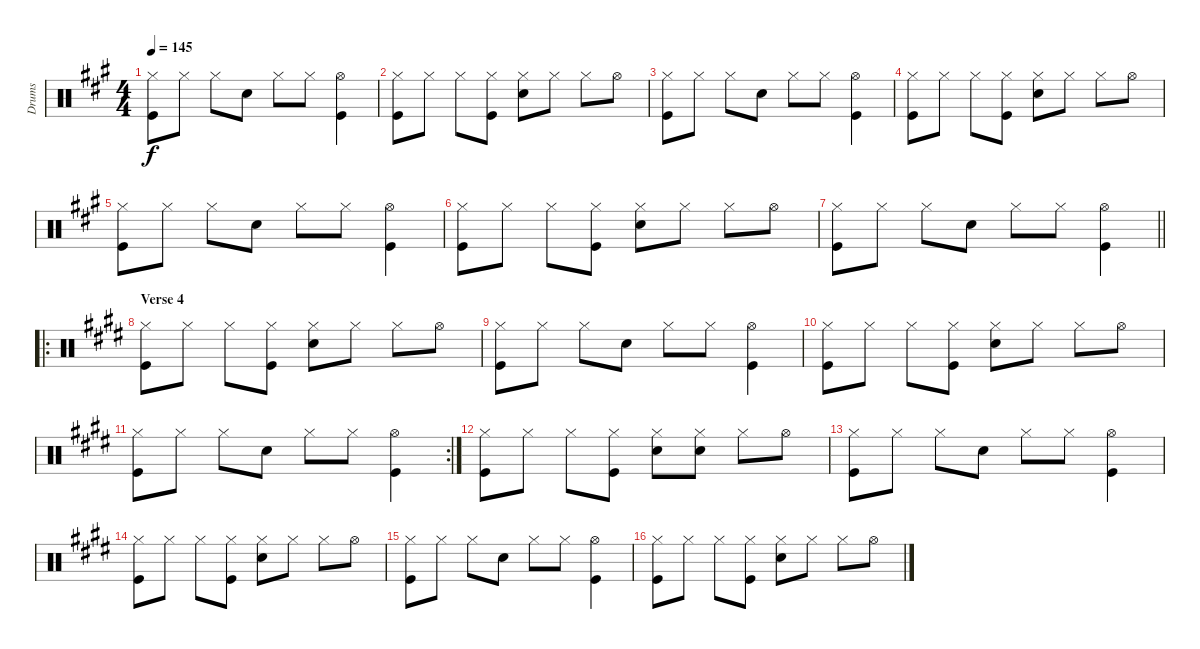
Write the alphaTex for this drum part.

\track ("Drums" "Drums") {instrument percussion}
\staff {score}
\articulation defaults
\ts (4 4)
\tempo 145
\clef neutral
\ks a
("Hi-Hat (closed)" "Kick (hit)").8{dy f} "Hi-Hat (closed)".8 "Hi-Hat (closed)".8 "Snare (hit) 2".8 "Hi-Hat (closed)".8 "Hi-Hat (closed)".8 ("Hi-Hat (open)" "Kick (hit)").4 |
("Hi-Hat (closed)" "Kick (hit)").8 "Hi-Hat (closed)".8 "Hi-Hat (closed)".8 ("Hi-Hat (closed)" "Kick (hit)").8 ("Hi-Hat (closed)" "Snare (hit) 2").8 "Hi-Hat (closed)".8 "Hi-Hat (closed)".8 "Hi-Hat (open)".8 |
("Hi-Hat (closed)" "Kick (hit)").8 "Hi-Hat (closed)".8 "Hi-Hat (closed)".8 "Snare (hit) 2".8 "Hi-Hat (closed)".8 "Hi-Hat (closed)".8 ("Hi-Hat (open)" "Kick (hit)").4 |
("Hi-Hat (closed)" "Kick (hit)").8 "Hi-Hat (closed)".8 "Hi-Hat (closed)".8 ("Hi-Hat (closed)" "Kick (hit)").8 ("Hi-Hat (closed)" "Snare (hit) 2").8 "Hi-Hat (closed)".8 "Hi-Hat (closed)".8 "Hi-Hat (open)".8 |
("Hi-Hat (closed)" "Kick (hit)").8 "Hi-Hat (closed)".8 "Hi-Hat (closed)".8 "Snare (hit) 2".8 "Hi-Hat (closed)".8 "Hi-Hat (closed)".8 ("Hi-Hat (open)" "Kick (hit)").4 |
("Hi-Hat (closed)" "Kick (hit)").8 "Hi-Hat (closed)".8 "Hi-Hat (closed)".8 ("Hi-Hat (closed)" "Kick (hit)").8 ("Hi-Hat (closed)" "Snare (hit) 2").8 "Hi-Hat (closed)".8 "Hi-Hat (closed)".8 "Hi-Hat (open)".8 |
\barLineRight lightlight
("Hi-Hat (closed)" "Kick (hit)").8 "Hi-Hat (closed)".8 "Hi-Hat (closed)".8 "Snare (hit) 2".8 "Hi-Hat (closed)".8 "Hi-Hat (closed)".8 ("Hi-Hat (open)" "Kick (hit)").4 |
\ro
\section ("" "Verse 4")
\ks c#minor
("Hi-Hat (closed)" "Kick (hit)").8 "Hi-Hat (closed)".8 "Hi-Hat (closed)".8 ("Hi-Hat (closed)" "Kick (hit)").8 ("Hi-Hat (closed)" "Snare (hit) 2").8 "Hi-Hat (closed)".8 "Hi-Hat (closed)".8 "Hi-Hat (open)".8 |
("Hi-Hat (closed)" "Kick (hit)").8 "Hi-Hat (closed)".8 "Hi-Hat (closed)".8 "Snare (hit) 2".8 "Hi-Hat (closed)".8 "Hi-Hat (closed)".8 ("Hi-Hat (open)" "Kick (hit)").4 |
("Hi-Hat (closed)" "Kick (hit)").8 "Hi-Hat (closed)".8 "Hi-Hat (closed)".8 ("Hi-Hat (closed)" "Kick (hit)").8 ("Hi-Hat (closed)" "Snare (hit) 2").8 "Hi-Hat (closed)".8 "Hi-Hat (closed)".8 "Hi-Hat (open)".8 |
\rc 2
("Hi-Hat (closed)" "Kick (hit)").8 "Hi-Hat (closed)".8 "Hi-Hat (closed)".8 "Snare (hit) 2".8 "Hi-Hat (closed)".8 "Hi-Hat (closed)".8 ("Hi-Hat (open)" "Kick (hit)").4 |
("Hi-Hat (closed)" "Kick (hit)").8 "Hi-Hat (closed)".8 "Hi-Hat (closed)".8 ("Hi-Hat (closed)" "Kick (hit)").8 ("Hi-Hat (closed)" "Snare (hit) 2").8 ("Hi-Hat (closed)" "Snare (hit) 2").8 "Hi-Hat (closed)".8 "Hi-Hat (open)".8 |
("Hi-Hat (closed)" "Kick (hit)").8 "Hi-Hat (closed)".8 "Hi-Hat (closed)".8 "Snare (hit) 2".8 "Hi-Hat (closed)".8 "Hi-Hat (closed)".8 ("Hi-Hat (open)" "Kick (hit)").4 |
("Hi-Hat (closed)" "Kick (hit)").8 "Hi-Hat (closed)".8 "Hi-Hat (closed)".8 ("Hi-Hat (closed)" "Kick (hit)").8 ("Hi-Hat (closed)" "Snare (hit) 2").8 "Hi-Hat (closed)".8 "Hi-Hat (closed)".8 "Hi-Hat (open)".8 |
("Hi-Hat (closed)" "Kick (hit)").8 "Hi-Hat (closed)".8 "Hi-Hat (closed)".8 "Snare (hit) 2".8 "Hi-Hat (closed)".8 "Hi-Hat (closed)".8 ("Hi-Hat (open)" "Kick (hit)").4 |
("Hi-Hat (closed)" "Kick (hit)").8 "Hi-Hat (closed)".8 "Hi-Hat (closed)".8 ("Hi-Hat (closed)" "Kick (hit)").8 ("Hi-Hat (closed)" "Snare (hit) 2").8 "Hi-Hat (closed)".8 "Hi-Hat (closed)".8 "Hi-Hat (open)".8
